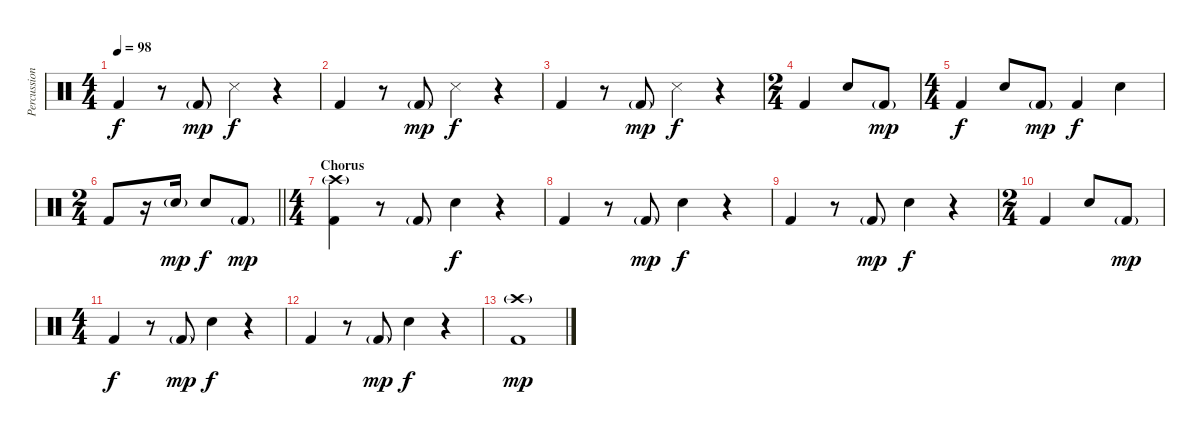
\track ("Percussion" "Percussion") {instrument percussion}
\staff {score}
\articulation defaults
\ts (4 4)
\tempo 98
\clef neutral
\ks c "Kick (hit) 2".4{dy f}
r.8 "Kick (hit) 2"{g}.8{dy mp} "Snare (side stick) 3".4{dy f} r.4 |
"Kick (hit) 2".4 r.8 "Kick (hit) 2"{g}.8{dy mp} "Snare (side stick) 3".4{dy f} r.4 |
"Kick (hit) 2".4 r.8 "Kick (hit) 2"{g}.8{dy mp} "Snare (side stick) 3".4{dy f} r.4 |
\ts (2 4)
"Kick (hit) 2".4 "Snare (hit) 2".8 "Kick (hit) 2"{g}.8{dy mp} |
\ts (4 4)
"Kick (hit) 2".4{dy f} "Snare (hit) 2".8 "Kick (hit) 2"{g}.8{dy mp} "Kick (hit) 2".4{dy f} "Snare (hit) 2".4 |
\ts (2 4)
\barLineRight lightlight "Kick (hit) 2".8
r.16 "Snare (hit) 2"{g}.16{dy mp} "Snare (hit) 2".8{dy f} "Kick (hit) 2"{g}.8{dy mp} |
\ts (4 4)
\section ("" "Chorus")
("Crash high (hit)"{g} "Kick (hit) 2").4 r.8 "Kick (hit) 2"{g}.8 "Snare (hit) 2".4{dy f} r.4 |
"Kick (hit) 2".4 r.8 "Kick (hit) 2"{g}.8{dy mp} "Snare (hit) 2".4{dy f} r.4 |
"Kick (hit) 2".4 r.8 "Kick (hit) 2"{g}.8{dy mp} "Snare (hit) 2".4{dy f} r.4 |
\ts (2 4)
"Kick (hit) 2".4 "Snare (hit) 2".8 "Kick (hit) 2"{g}.8{dy mp} |
\ts (4 4)
"Kick (hit) 2".4{dy f} r.8 "Kick (hit) 2"{g}.8{dy mp} "Snare (hit) 2".4{dy f} r.4 |
"Kick (hit) 2".4 r.8 "Kick (hit) 2"{g}.8{dy mp} "Snare (hit) 2".4{dy f} r.4 |
("Crash high (hit)"{g} "Kick (hit) 2").1{dy mp}
